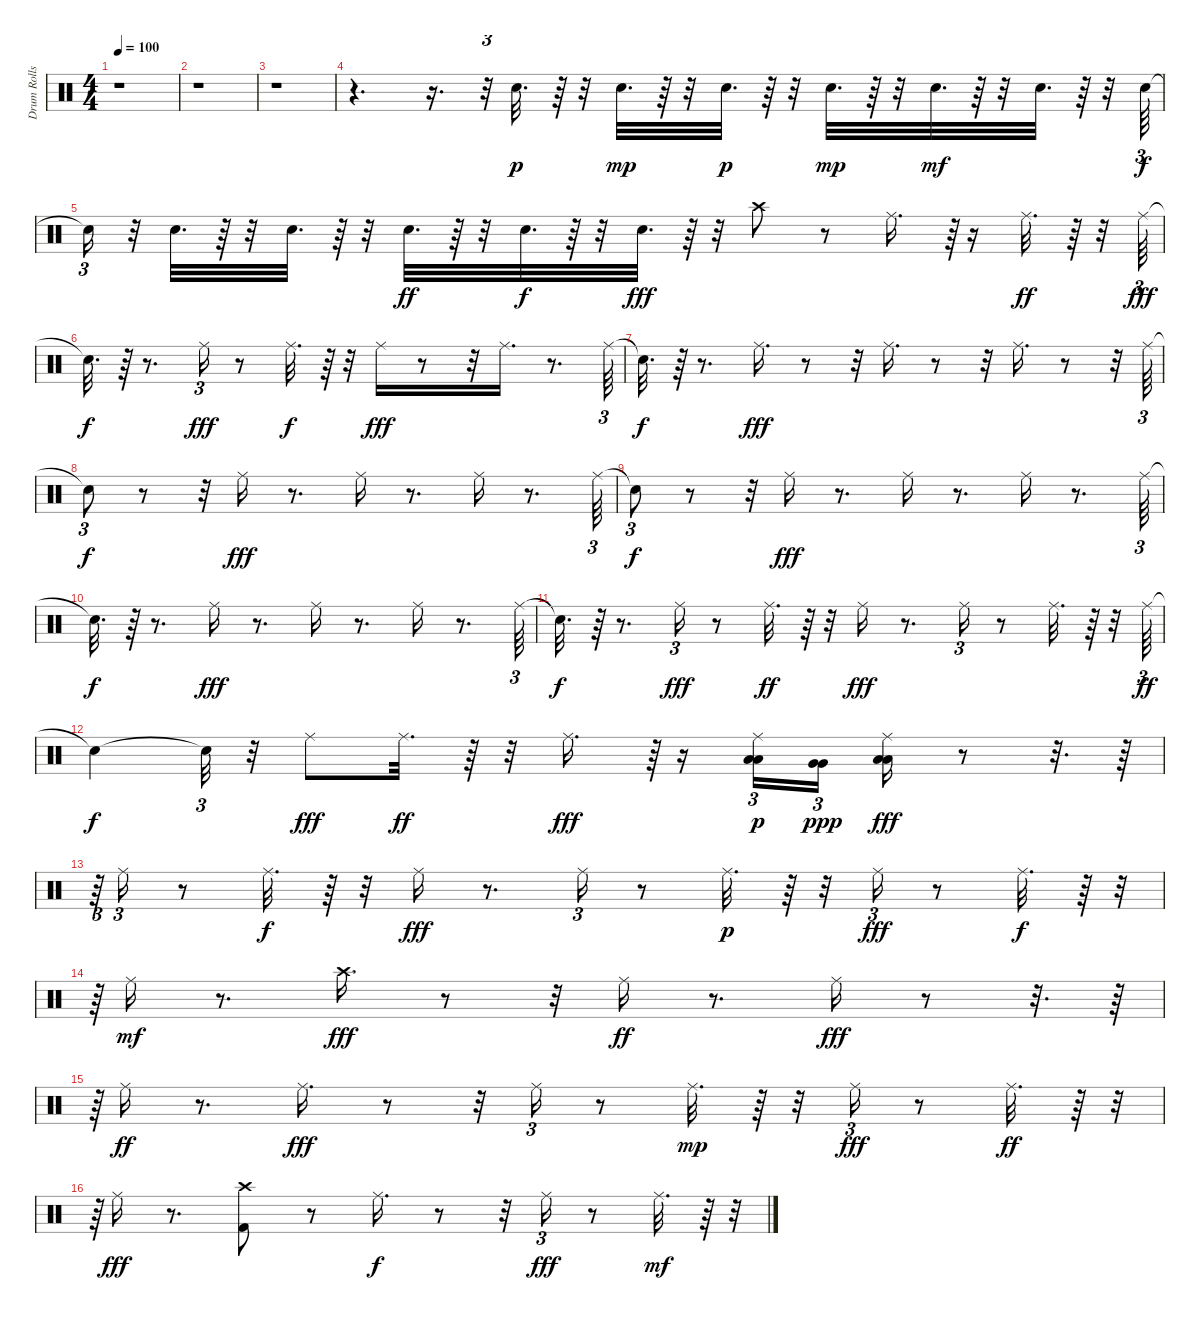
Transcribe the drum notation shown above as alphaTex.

\track ("Drum Rolls" "Drum Rolls") {instrument percussion}
\staff {score}
\articulation defaults
\ts (4 4)
\tempo 100
\clef neutral
\ks c
r.1{dy mp} |
r.1 |
r.1 |
r.4{d} r.16{d} r.32{tu (3 2)} "Electric Snare (hit)".32{d dy p} r.64 r.32 "Electric Snare (hit)".32{d dy mp} r.64 r.32 "Electric Snare (hit)".32{d dy p} r.64 r.32 "Electric Snare (hit)".32{d dy mp} r.64 r.32 "Electric Snare (hit)".32{d dy mf} r.64 r.32 "Electric Snare (hit)".32{d} r.64 r.32 "Electric Snare (hit)".64{tu (3 2) dy f} |
"Snare (hit)"{t}.16{tu (3 2)} r.32 "Electric Snare (hit)".32{d} r.64 r.32 "Electric Snare (hit)".32{d} r.64 r.32 "Electric Snare (hit)".32{d dy ff} r.64 r.32 "Electric Snare (hit)".32{d dy f} r.64 r.32 "Electric Snare (hit)".32{d dy fff} r.64 r.32 "Crash high (hit)".8 r.8 "Ride (middle)".16{d} r.64{tu (3 2)} r.16 "Ride (middle)".32{d dy ff} r.64 r.32 "Ride (middle)".64{tu (3 2) dy fff} |
"Snare (hit)"{t}.32{d dy f} r.64 r.8{d} "Ride (middle)".16{tu (3 2) dy fff} r.8 "Ride (middle)".32{d dy f} r.64 r.32 "Ride (middle)".16{dy fff} r.8 r.32 "Ride (middle)".16{d} r.8{d} "Ride (middle)".64{tu (3 2)} |
"Snare (hit)"{t}.32{d dy f} r.64 r.8{d} "Ride (middle)".16{d dy fff} r.8 r.32 "Ride (middle)".16{d} r.8 r.32 "Ride (middle)".16{d} r.8 r.32 "Ride (middle)".64{tu (3 2)} |
"Snare (hit)"{t}.8{tu (3 2) dy f} r.8 r.32 "Ride (middle)".16{dy fff} r.8{d} "Ride (middle)".16 r.8{d} "Ride (middle)".16 r.8{d} "Ride (middle)".64{tu (3 2)} |
"Snare (hit)"{t}.8{tu (3 2) dy f} r.8 r.32 "Ride (middle)".16{dy fff} r.8{d} "Ride (middle)".16 r.8{d} "Ride (middle)".16 r.8{d} "Ride (middle)".64{tu (3 2)} |
"Snare (hit)"{t}.32{d dy f} r.64 r.8{d} "Ride (middle)".16{dy fff} r.8{d} "Ride (middle)".16 r.8{d} "Ride (middle)".16 r.8{d} "Ride (middle)".64{tu (3 2)} |
"Snare (hit)"{t}.32{d dy f} r.64 r.8{d} "Ride (middle)".16{tu (3 2) dy fff} r.8 "Ride (middle)".32{d dy ff} r.64 r.32 "Ride (middle)".16{dy fff} r.8{d} "Ride (middle)".16{tu (3 2)} r.8 "Ride (middle)".32{d} r.64 r.32 "Ride (middle)".64{tu (3 2) dy ff} |
"Snare (hit)"{t}.4{dy f} "Snare (hit)"{t}.32{tu (3 2)} r.32 "Ride (middle)".8{dy fff} "Ride (middle)".32{d dy ff} r.64 r.32 "Ride (middle)".16{d dy fff} r.64{tu (3 2)} r.16 ("Low Floor Tom (hit)" "Ride (middle)" "Low Floor Tom (hit)").16{tu (3 2) dy p} ("Very Low Tom (hit)" "Very Low Tom (hit)").16{tu (3 2) dy ppp} ("Low Tom (hit)" "Low Tom (hit)" "Ride (middle)").16{dy fff} r.8 r.32{d} r.64 |
r.64{tu (3 2)} "Ride (middle)".16{tu (3 2)} r.8 "Ride (middle)".32{d dy f} r.64 r.32 "Ride (middle)".16{dy fff} r.8{d} "Ride (middle)".16{tu (3 2)} r.8 "Ride (middle)".32{d dy p} r.64 r.32 "Ride (middle)".16{tu (3 2) dy fff} r.8 "Ride (middle)".32{d dy f} r.64 r.32{tu (3 2)} |
r.64{tu (3 2)} "Ride (middle)".16{dy mf} r.8{d} "Crash high (hit)".16{d dy fff} r.8 r.32 "Ride (middle)".16{dy ff} r.8{d} "Ride (middle)".16{dy fff} r.8 r.32{d} r.64 |
r.64{tu (3 2)} "Ride (middle)".16{dy ff} r.8{d} "Ride (middle)".16{d dy fff} r.8 r.32 "Ride (middle)".16{tu (3 2)} r.8 "Ride (middle)".32{d dy mp} r.64 r.32 "Ride (middle)".16{tu (3 2) dy fff} r.8 "Ride (middle)".32{d dy ff} r.64 r.32{tu (3 2)} |
r.64{tu (3 2)} "Ride (middle)".16{dy fff} r.8{d} ("Crash high (hit)" "Kick (hit) 2").8 r.8 "Ride (middle)".16{d dy f} r.8 r.32 "Ride (middle)".16{tu (3 2) dy fff} r.8 "Ride (middle)".32{d dy mf} r.64 r.32{tu (3 2)}
